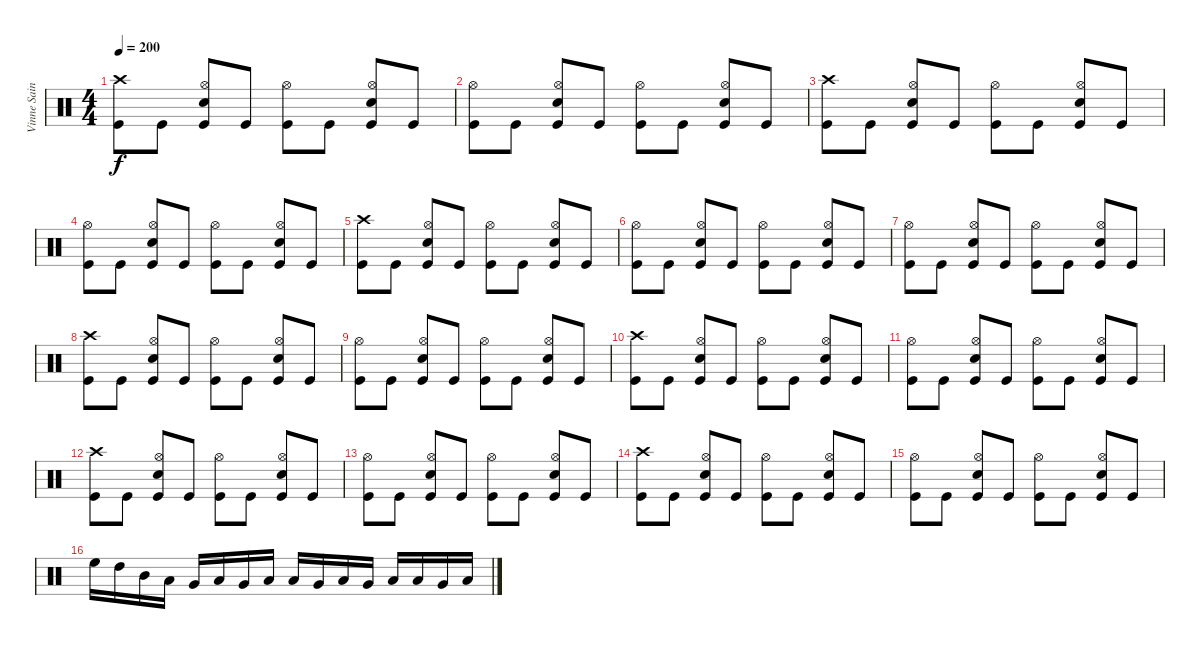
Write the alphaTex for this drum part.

\track ("Vinne Saint James" "Vinne Sain") {instrument percussion}
\staff {score}
\articulation defaults
\ts (4 4)
\tempo 200
\clef neutral
\ks c
("Crash high (hit)" "Kick (hit)").8{dy f} "Kick (hit)".8 ("Hi-Hat (open)" "Electric Snare (hit)" "Kick (hit)").8 "Kick (hit)".8 ("Hi-Hat (open)" "Kick (hit)").8 "Kick (hit)".8 ("Hi-Hat (open)" "Electric Snare (hit)" "Kick (hit)").8 "Kick (hit)".8 |
("Hi-Hat (open)" "Kick (hit)").8 "Kick (hit)".8 ("Hi-Hat (open)" "Electric Snare (hit)" "Kick (hit)").8 "Kick (hit)".8 ("Hi-Hat (open)" "Kick (hit)").8 "Kick (hit)".8 ("Hi-Hat (open)" "Electric Snare (hit)" "Kick (hit)").8 "Kick (hit)".8 |
("Crash high (hit)" "Kick (hit)").8 "Kick (hit)".8 ("Hi-Hat (open)" "Electric Snare (hit)" "Kick (hit)").8 "Kick (hit)".8 ("Hi-Hat (open)" "Kick (hit)").8 "Kick (hit)".8 ("Hi-Hat (open)" "Electric Snare (hit)" "Kick (hit)").8 "Kick (hit)".8 |
("Hi-Hat (open)" "Kick (hit)").8 "Kick (hit)".8 ("Hi-Hat (open)" "Electric Snare (hit)" "Kick (hit)").8 "Kick (hit)".8 ("Hi-Hat (open)" "Kick (hit)").8 "Kick (hit)".8 ("Hi-Hat (open)" "Electric Snare (hit)" "Kick (hit)").8 "Kick (hit)".8 |
("Crash high (hit)" "Kick (hit)").8 "Kick (hit)".8 ("Hi-Hat (open)" "Electric Snare (hit)" "Kick (hit)").8 "Kick (hit)".8 ("Hi-Hat (open)" "Kick (hit)").8 "Kick (hit)".8 ("Hi-Hat (open)" "Electric Snare (hit)" "Kick (hit)").8 "Kick (hit)".8 |
("Hi-Hat (open)" "Kick (hit)").8 "Kick (hit)".8 ("Hi-Hat (open)" "Electric Snare (hit)" "Kick (hit)").8 "Kick (hit)".8 ("Hi-Hat (open)" "Kick (hit)").8 "Kick (hit)".8 ("Hi-Hat (open)" "Electric Snare (hit)" "Kick (hit)").8 "Kick (hit)".8 |
("Hi-Hat (open)" "Kick (hit)").8 "Kick (hit)".8 ("Hi-Hat (open)" "Electric Snare (hit)" "Kick (hit)").8 "Kick (hit)".8 ("Hi-Hat (open)" "Kick (hit)").8 "Kick (hit)".8 ("Hi-Hat (open)" "Electric Snare (hit)" "Kick (hit)").8 "Kick (hit)".8 |
("Crash high (hit)" "Kick (hit)").8 "Kick (hit)".8 ("Hi-Hat (open)" "Electric Snare (hit)" "Kick (hit)").8 "Kick (hit)".8 ("Hi-Hat (open)" "Kick (hit)").8 "Kick (hit)".8 ("Hi-Hat (open)" "Electric Snare (hit)" "Kick (hit)").8 "Kick (hit)".8 |
("Hi-Hat (open)" "Kick (hit)").8 "Kick (hit)".8 ("Hi-Hat (open)" "Electric Snare (hit)" "Kick (hit)").8 "Kick (hit)".8 ("Hi-Hat (open)" "Kick (hit)").8 "Kick (hit)".8 ("Hi-Hat (open)" "Electric Snare (hit)" "Kick (hit)").8 "Kick (hit)".8 |
("Crash high (hit)" "Kick (hit)").8 "Kick (hit)".8 ("Hi-Hat (open)" "Electric Snare (hit)" "Kick (hit)").8 "Kick (hit)".8 ("Hi-Hat (open)" "Kick (hit)").8 "Kick (hit)".8 ("Hi-Hat (open)" "Electric Snare (hit)" "Kick (hit)").8 "Kick (hit)".8 |
("Hi-Hat (open)" "Kick (hit)").8 "Kick (hit)".8 ("Hi-Hat (open)" "Electric Snare (hit)" "Kick (hit)").8 "Kick (hit)".8 ("Hi-Hat (open)" "Kick (hit)").8 "Kick (hit)".8 ("Hi-Hat (open)" "Electric Snare (hit)" "Kick (hit)").8 "Kick (hit)".8 |
("Crash high (hit)" "Kick (hit)").8 "Kick (hit)".8 ("Hi-Hat (open)" "Electric Snare (hit)" "Kick (hit)").8 "Kick (hit)".8 ("Hi-Hat (open)" "Kick (hit)").8 "Kick (hit)".8 ("Hi-Hat (open)" "Electric Snare (hit)" "Kick (hit)").8 "Kick (hit)".8 |
("Hi-Hat (open)" "Kick (hit)").8 "Kick (hit)".8 ("Hi-Hat (open)" "Electric Snare (hit)" "Kick (hit)").8 "Kick (hit)".8 ("Hi-Hat (open)" "Kick (hit)").8 "Kick (hit)".8 ("Hi-Hat (open)" "Electric Snare (hit)" "Kick (hit)").8 "Kick (hit)".8 |
("Crash high (hit)" "Kick (hit)").8 "Kick (hit)".8 ("Hi-Hat (open)" "Electric Snare (hit)" "Kick (hit)").8 "Kick (hit)".8 ("Hi-Hat (open)" "Kick (hit)").8 "Kick (hit)".8 ("Hi-Hat (open)" "Electric Snare (hit)" "Kick (hit)").8 "Kick (hit)".8 |
("Hi-Hat (open)" "Kick (hit)").8 "Kick (hit)".8 ("Hi-Hat (open)" "Electric Snare (hit)" "Kick (hit)").8 "Kick (hit)".8 ("Hi-Hat (open)" "Kick (hit)").8 "Kick (hit)".8 ("Hi-Hat (open)" "Electric Snare (hit)" "Kick (hit)").8 "Kick (hit)".8 |
"High Floor Tom (hit)".16 "High Tom (hit)".16 "Mid Tom (hit)".16 "Low Tom (hit)".16 "Very Low Tom (hit)".16 "Low Floor Tom (hit)".16 "Very Low Tom (hit)".16 "Low Floor Tom (hit)".16 "Low Tom (hit)".16 "Very Low Tom (hit)".16 "Low Floor Tom (hit)".16 "Very Low Tom (hit)".16 "Low Floor Tom (hit)".16 "Low Tom (hit)".16 "Very Low Tom (hit)".16 "Low Floor Tom (hit)".16
